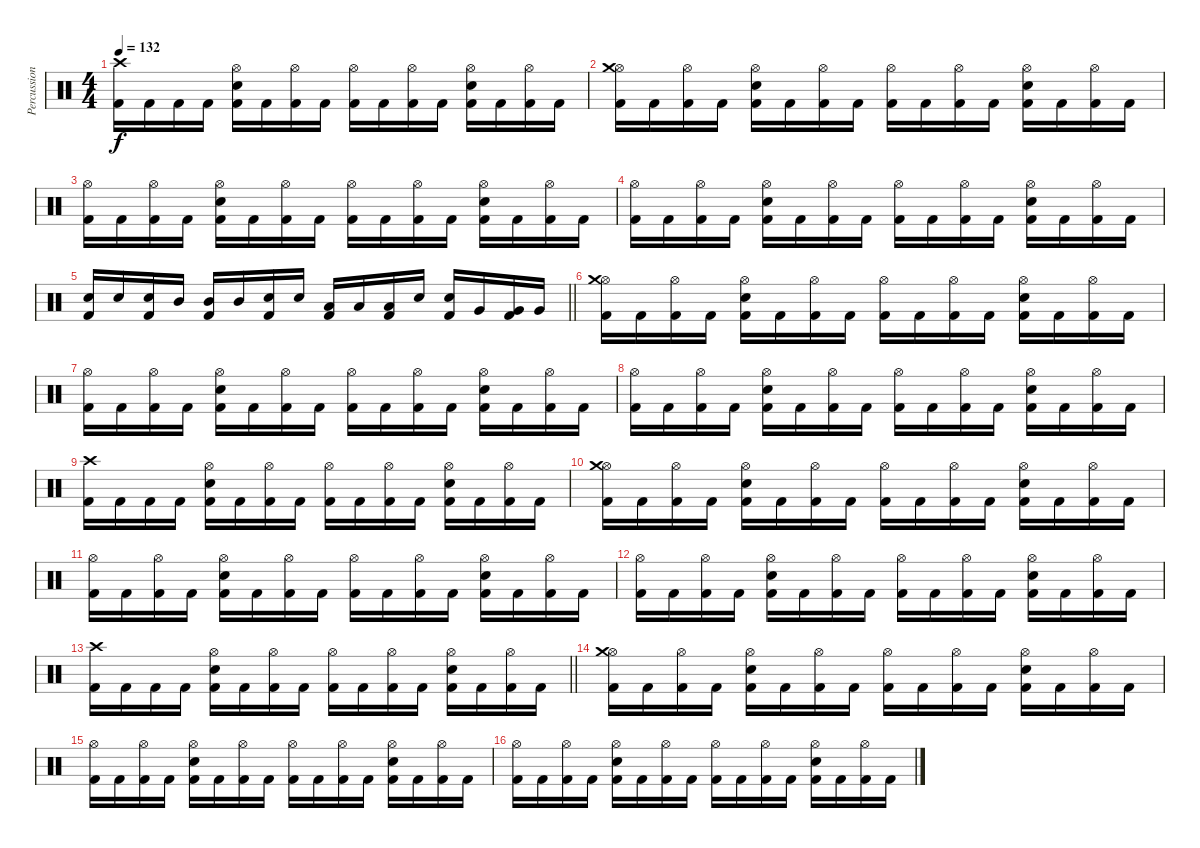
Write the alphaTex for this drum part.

\track ("Percussion" "Percussion") {instrument percussion}
\staff {score}
\articulation defaults
\ts (4 4)
\tempo 132
\clef neutral
\ks c
("Kick (hit) 2" "Crash high (hit)").16{dy f} "Kick (hit) 2".16 "Kick (hit) 2".16 "Kick (hit) 2".16 ("Kick (hit) 2" "Electric Snare (hit)" "Hi-Hat (open)").16 "Kick (hit) 2".16 ("Kick (hit) 2" "Hi-Hat (open)").16 "Kick (hit) 2".16 ("Kick (hit) 2" "Hi-Hat (open)").16 "Kick (hit) 2".16 ("Kick (hit) 2" "Hi-Hat (open)").16 "Kick (hit) 2".16 ("Kick (hit) 2" "Electric Snare (hit)" "Hi-Hat (open)").16 "Kick (hit) 2".16 ("Kick (hit) 2" "Hi-Hat (open)").16 "Kick (hit) 2".16 |
("Kick (hit) 2" "Hi-Hat (open)" "Crash medium (hit)").16 "Kick (hit) 2".16 ("Kick (hit) 2" "Hi-Hat (open)").16 "Kick (hit) 2".16 ("Kick (hit) 2" "Electric Snare (hit)" "Hi-Hat (open)").16 "Kick (hit) 2".16 ("Kick (hit) 2" "Hi-Hat (open)").16 "Kick (hit) 2".16 ("Kick (hit) 2" "Hi-Hat (open)").16 "Kick (hit) 2".16 ("Kick (hit) 2" "Hi-Hat (open)").16 "Kick (hit) 2".16 ("Kick (hit) 2" "Electric Snare (hit)" "Hi-Hat (open)").16 "Kick (hit) 2".16 ("Kick (hit) 2" "Hi-Hat (open)").16 "Kick (hit) 2".16 |
("Kick (hit) 2" "Hi-Hat (open)").16 "Kick (hit) 2".16 ("Kick (hit) 2" "Hi-Hat (open)").16 "Kick (hit) 2".16 ("Kick (hit) 2" "Electric Snare (hit)" "Hi-Hat (open)").16 "Kick (hit) 2".16 ("Kick (hit) 2" "Hi-Hat (open)").16 "Kick (hit) 2".16 ("Kick (hit) 2" "Hi-Hat (open)").16 "Kick (hit) 2".16 ("Kick (hit) 2" "Hi-Hat (open)").16 "Kick (hit) 2".16 ("Kick (hit) 2" "Electric Snare (hit)" "Hi-Hat (open)").16 "Kick (hit) 2".16 ("Kick (hit) 2" "Hi-Hat (open)").16 "Kick (hit) 2".16 |
("Kick (hit) 2" "Hi-Hat (open)").16 "Kick (hit) 2".16 ("Kick (hit) 2" "Hi-Hat (open)").16 "Kick (hit) 2".16 ("Kick (hit) 2" "Electric Snare (hit)" "Hi-Hat (open)").16 "Kick (hit) 2".16 ("Kick (hit) 2" "Hi-Hat (open)").16 "Kick (hit) 2".16 ("Kick (hit) 2" "Hi-Hat (open)").16 "Kick (hit) 2".16 ("Kick (hit) 2" "Hi-Hat (open)").16 "Kick (hit) 2".16 ("Kick (hit) 2" "Electric Snare (hit)" "Hi-Hat (open)").16 "Kick (hit) 2".16 ("Kick (hit) 2" "Hi-Hat (open)").16 "Kick (hit) 2".16 |
\barLineRight lightlight
("Electric Snare (hit)" "Kick (hit) 2").16 "Electric Snare (hit)".16 ("Electric Snare (hit)" "Kick (hit) 2").16 "Mid Tom (hit)".16 ("Mid Tom (hit)" "Kick (hit) 2").16 "Mid Tom (hit)".16 ("Electric Snare (hit)" "Kick (hit) 2").16 "Electric Snare (hit)".16 ("Low Tom (hit)" "Kick (hit) 2").16 "Low Tom (hit)".16 ("Low Tom (hit)" "Kick (hit) 2").16 "Electric Snare (hit)".16 ("Electric Snare (hit)" "Kick (hit) 2").16 "Very Low Tom (hit)".16 ("Very Low Tom (hit)" "Kick (hit) 2").16 "Very Low Tom (hit)".16 |
("Kick (hit) 2" "Hi-Hat (open)" "Crash medium (hit)").16 "Kick (hit) 2".16 ("Kick (hit) 2" "Hi-Hat (open)").16 "Kick (hit) 2".16 ("Kick (hit) 2" "Electric Snare (hit)" "Hi-Hat (open)").16 "Kick (hit) 2".16 ("Kick (hit) 2" "Hi-Hat (open)").16 "Kick (hit) 2".16 ("Kick (hit) 2" "Hi-Hat (open)").16 "Kick (hit) 2".16 ("Kick (hit) 2" "Hi-Hat (open)").16 "Kick (hit) 2".16 ("Kick (hit) 2" "Electric Snare (hit)" "Hi-Hat (open)").16 "Kick (hit) 2".16 ("Kick (hit) 2" "Hi-Hat (open)").16 "Kick (hit) 2".16 |
("Kick (hit) 2" "Hi-Hat (open)").16 "Kick (hit) 2".16 ("Kick (hit) 2" "Hi-Hat (open)").16 "Kick (hit) 2".16 ("Kick (hit) 2" "Electric Snare (hit)" "Hi-Hat (open)").16 "Kick (hit) 2".16 ("Kick (hit) 2" "Hi-Hat (open)").16 "Kick (hit) 2".16 ("Kick (hit) 2" "Hi-Hat (open)").16 "Kick (hit) 2".16 ("Kick (hit) 2" "Hi-Hat (open)").16 "Kick (hit) 2".16 ("Kick (hit) 2" "Electric Snare (hit)" "Hi-Hat (open)").16 "Kick (hit) 2".16 ("Kick (hit) 2" "Hi-Hat (open)").16 "Kick (hit) 2".16 |
("Kick (hit) 2" "Hi-Hat (open)").16 "Kick (hit) 2".16 ("Kick (hit) 2" "Hi-Hat (open)").16 "Kick (hit) 2".16 ("Kick (hit) 2" "Electric Snare (hit)" "Hi-Hat (open)").16 "Kick (hit) 2".16 ("Kick (hit) 2" "Hi-Hat (open)").16 "Kick (hit) 2".16 ("Kick (hit) 2" "Hi-Hat (open)").16 "Kick (hit) 2".16 ("Kick (hit) 2" "Hi-Hat (open)").16 "Kick (hit) 2".16 ("Kick (hit) 2" "Electric Snare (hit)" "Hi-Hat (open)").16 "Kick (hit) 2".16 ("Kick (hit) 2" "Hi-Hat (open)").16 "Kick (hit) 2".16 |
("Kick (hit) 2" "Crash high (hit)").16 "Kick (hit) 2".16 "Kick (hit) 2".16 "Kick (hit) 2".16 ("Kick (hit) 2" "Electric Snare (hit)" "Hi-Hat (open)").16 "Kick (hit) 2".16 ("Kick (hit) 2" "Hi-Hat (open)").16 "Kick (hit) 2".16 ("Kick (hit) 2" "Hi-Hat (open)").16 "Kick (hit) 2".16 ("Kick (hit) 2" "Hi-Hat (open)").16 "Kick (hit) 2".16 ("Kick (hit) 2" "Electric Snare (hit)" "Hi-Hat (open)").16 "Kick (hit) 2".16 ("Kick (hit) 2" "Hi-Hat (open)").16 "Kick (hit) 2".16 |
("Kick (hit) 2" "Hi-Hat (open)" "Crash medium (hit)").16 "Kick (hit) 2".16 ("Kick (hit) 2" "Hi-Hat (open)").16 "Kick (hit) 2".16 ("Kick (hit) 2" "Electric Snare (hit)" "Hi-Hat (open)").16 "Kick (hit) 2".16 ("Kick (hit) 2" "Hi-Hat (open)").16 "Kick (hit) 2".16 ("Kick (hit) 2" "Hi-Hat (open)").16 "Kick (hit) 2".16 ("Kick (hit) 2" "Hi-Hat (open)").16 "Kick (hit) 2".16 ("Kick (hit) 2" "Electric Snare (hit)" "Hi-Hat (open)").16 "Kick (hit) 2".16 ("Kick (hit) 2" "Hi-Hat (open)").16 "Kick (hit) 2".16 |
("Kick (hit) 2" "Hi-Hat (open)").16 "Kick (hit) 2".16 ("Kick (hit) 2" "Hi-Hat (open)").16 "Kick (hit) 2".16 ("Kick (hit) 2" "Electric Snare (hit)" "Hi-Hat (open)").16 "Kick (hit) 2".16 ("Kick (hit) 2" "Hi-Hat (open)").16 "Kick (hit) 2".16 ("Kick (hit) 2" "Hi-Hat (open)").16 "Kick (hit) 2".16 ("Kick (hit) 2" "Hi-Hat (open)").16 "Kick (hit) 2".16 ("Kick (hit) 2" "Electric Snare (hit)" "Hi-Hat (open)").16 "Kick (hit) 2".16 ("Kick (hit) 2" "Hi-Hat (open)").16 "Kick (hit) 2".16 |
("Kick (hit) 2" "Hi-Hat (open)").16 "Kick (hit) 2".16 ("Kick (hit) 2" "Hi-Hat (open)").16 "Kick (hit) 2".16 ("Kick (hit) 2" "Electric Snare (hit)" "Hi-Hat (open)").16 "Kick (hit) 2".16 ("Kick (hit) 2" "Hi-Hat (open)").16 "Kick (hit) 2".16 ("Kick (hit) 2" "Hi-Hat (open)").16 "Kick (hit) 2".16 ("Kick (hit) 2" "Hi-Hat (open)").16 "Kick (hit) 2".16 ("Kick (hit) 2" "Electric Snare (hit)" "Hi-Hat (open)").16 "Kick (hit) 2".16 ("Kick (hit) 2" "Hi-Hat (open)").16 "Kick (hit) 2".16 |
\barLineRight lightlight
("Kick (hit) 2" "Crash high (hit)").16 "Kick (hit) 2".16 "Kick (hit) 2".16 "Kick (hit) 2".16 ("Kick (hit) 2" "Electric Snare (hit)" "Hi-Hat (open)").16 "Kick (hit) 2".16 ("Kick (hit) 2" "Hi-Hat (open)").16 "Kick (hit) 2".16 ("Kick (hit) 2" "Hi-Hat (open)").16 "Kick (hit) 2".16 ("Kick (hit) 2" "Hi-Hat (open)").16 "Kick (hit) 2".16 ("Kick (hit) 2" "Electric Snare (hit)" "Hi-Hat (open)").16 "Kick (hit) 2".16 ("Kick (hit) 2" "Hi-Hat (open)").16 "Kick (hit) 2".16 |
("Kick (hit) 2" "Hi-Hat (open)" "Crash medium (hit)").16 "Kick (hit) 2".16 ("Kick (hit) 2" "Hi-Hat (open)").16 "Kick (hit) 2".16 ("Kick (hit) 2" "Electric Snare (hit)" "Hi-Hat (open)").16 "Kick (hit) 2".16 ("Kick (hit) 2" "Hi-Hat (open)").16 "Kick (hit) 2".16 ("Kick (hit) 2" "Hi-Hat (open)").16 "Kick (hit) 2".16 ("Kick (hit) 2" "Hi-Hat (open)").16 "Kick (hit) 2".16 ("Kick (hit) 2" "Electric Snare (hit)" "Hi-Hat (open)").16 "Kick (hit) 2".16 ("Kick (hit) 2" "Hi-Hat (open)").16 "Kick (hit) 2".16 |
("Kick (hit) 2" "Hi-Hat (open)").16 "Kick (hit) 2".16 ("Kick (hit) 2" "Hi-Hat (open)").16 "Kick (hit) 2".16 ("Kick (hit) 2" "Electric Snare (hit)" "Hi-Hat (open)").16 "Kick (hit) 2".16 ("Kick (hit) 2" "Hi-Hat (open)").16 "Kick (hit) 2".16 ("Kick (hit) 2" "Hi-Hat (open)").16 "Kick (hit) 2".16 ("Kick (hit) 2" "Hi-Hat (open)").16 "Kick (hit) 2".16 ("Kick (hit) 2" "Electric Snare (hit)" "Hi-Hat (open)").16 "Kick (hit) 2".16 ("Kick (hit) 2" "Hi-Hat (open)").16 "Kick (hit) 2".16 |
("Kick (hit) 2" "Hi-Hat (open)").16 "Kick (hit) 2".16 ("Kick (hit) 2" "Hi-Hat (open)").16 "Kick (hit) 2".16 ("Kick (hit) 2" "Electric Snare (hit)" "Hi-Hat (open)").16 "Kick (hit) 2".16 ("Kick (hit) 2" "Hi-Hat (open)").16 "Kick (hit) 2".16 ("Kick (hit) 2" "Hi-Hat (open)").16 "Kick (hit) 2".16 ("Kick (hit) 2" "Hi-Hat (open)").16 "Kick (hit) 2".16 ("Kick (hit) 2" "Electric Snare (hit)" "Hi-Hat (open)").16 "Kick (hit) 2".16 ("Kick (hit) 2" "Hi-Hat (open)").16 "Kick (hit) 2".16
